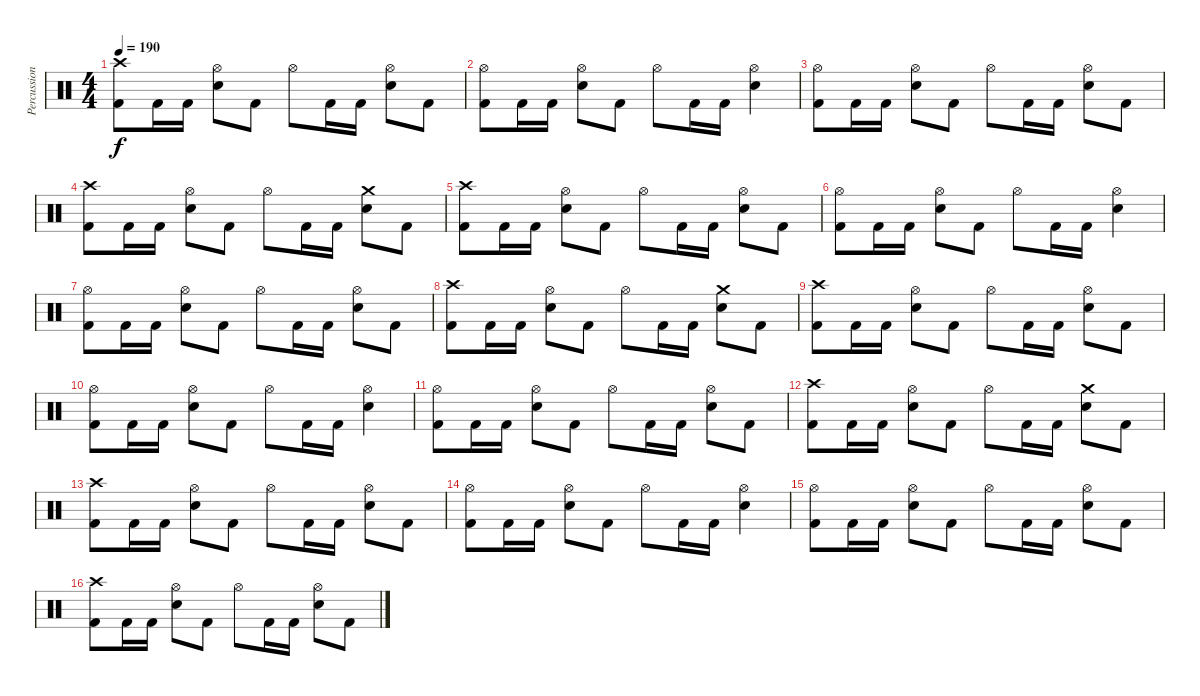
\track ("Percussion" "Percussion") {instrument percussion}
\staff {score}
\articulation defaults
\ts (4 4)
\tempo 190
\clef neutral
\ks c
("Crash high (hit)" "Kick (hit) 2").8{dy f} "Kick (hit) 2".16 "Kick (hit) 2".16 ("Hi-Hat (open)" "Snare (hit) 2").8 "Kick (hit) 2".8 "Hi-Hat (open)".8 "Kick (hit) 2".16 "Kick (hit) 2".16 ("Hi-Hat (open)" "Snare (hit) 2").8 "Kick (hit) 2".8 |
("Hi-Hat (open)" "Kick (hit) 2").8 "Kick (hit) 2".16 "Kick (hit) 2".16 ("Hi-Hat (open)" "Snare (hit) 2").8 "Kick (hit) 2".8 "Hi-Hat (open)".8 "Kick (hit) 2".16 "Kick (hit) 2".16 ("Hi-Hat (open)" "Snare (hit) 2").4 |
("Hi-Hat (open)" "Kick (hit) 2").8 "Kick (hit) 2".16 "Kick (hit) 2".16 ("Hi-Hat (open)" "Snare (hit) 2").8 "Kick (hit) 2".8 "Hi-Hat (open)".8 "Kick (hit) 2".16 "Kick (hit) 2".16 ("Hi-Hat (open)" "Snare (hit) 2").8 "Kick (hit) 2".8 |
("Crash high (hit)" "Kick (hit) 2").8 "Kick (hit) 2".16 "Kick (hit) 2".16 ("Hi-Hat (open)" "Snare (hit) 2").8 "Kick (hit) 2".8 "Hi-Hat (open)".8 "Kick (hit) 2".16 "Kick (hit) 2".16 ("Crash medium (hit)" "Snare (hit) 2").8 "Kick (hit) 2".8 |
("Crash high (hit)" "Kick (hit) 2").8 "Kick (hit) 2".16 "Kick (hit) 2".16 ("Hi-Hat (open)" "Snare (hit) 2").8 "Kick (hit) 2".8 "Hi-Hat (open)".8 "Kick (hit) 2".16 "Kick (hit) 2".16 ("Hi-Hat (open)" "Snare (hit) 2").8 "Kick (hit) 2".8 |
("Hi-Hat (open)" "Kick (hit) 2").8 "Kick (hit) 2".16 "Kick (hit) 2".16 ("Hi-Hat (open)" "Snare (hit) 2").8 "Kick (hit) 2".8 "Hi-Hat (open)".8 "Kick (hit) 2".16 "Kick (hit) 2".16 ("Hi-Hat (open)" "Snare (hit) 2").4 |
("Hi-Hat (open)" "Kick (hit) 2").8 "Kick (hit) 2".16 "Kick (hit) 2".16 ("Hi-Hat (open)" "Snare (hit) 2").8 "Kick (hit) 2".8 "Hi-Hat (open)".8 "Kick (hit) 2".16 "Kick (hit) 2".16 ("Hi-Hat (open)" "Snare (hit) 2").8 "Kick (hit) 2".8 |
("Crash high (hit)" "Kick (hit) 2").8 "Kick (hit) 2".16 "Kick (hit) 2".16 ("Hi-Hat (open)" "Snare (hit) 2").8 "Kick (hit) 2".8 "Hi-Hat (open)".8 "Kick (hit) 2".16 "Kick (hit) 2".16 ("Crash medium (hit)" "Snare (hit) 2").8 "Kick (hit) 2".8 |
("Crash high (hit)" "Kick (hit) 2").8 "Kick (hit) 2".16 "Kick (hit) 2".16 ("Hi-Hat (open)" "Snare (hit) 2").8 "Kick (hit) 2".8 "Hi-Hat (open)".8 "Kick (hit) 2".16 "Kick (hit) 2".16 ("Hi-Hat (open)" "Snare (hit) 2").8 "Kick (hit) 2".8 |
("Hi-Hat (open)" "Kick (hit) 2").8 "Kick (hit) 2".16 "Kick (hit) 2".16 ("Hi-Hat (open)" "Snare (hit) 2").8 "Kick (hit) 2".8 "Hi-Hat (open)".8 "Kick (hit) 2".16 "Kick (hit) 2".16 ("Hi-Hat (open)" "Snare (hit) 2").4 |
("Hi-Hat (open)" "Kick (hit) 2").8 "Kick (hit) 2".16 "Kick (hit) 2".16 ("Hi-Hat (open)" "Snare (hit) 2").8 "Kick (hit) 2".8 "Hi-Hat (open)".8 "Kick (hit) 2".16 "Kick (hit) 2".16 ("Hi-Hat (open)" "Snare (hit) 2").8 "Kick (hit) 2".8 |
("Crash high (hit)" "Kick (hit) 2").8 "Kick (hit) 2".16 "Kick (hit) 2".16 ("Hi-Hat (open)" "Snare (hit) 2").8 "Kick (hit) 2".8 "Hi-Hat (open)".8 "Kick (hit) 2".16 "Kick (hit) 2".16 ("Crash medium (hit)" "Snare (hit) 2").8 "Kick (hit) 2".8 |
("Crash high (hit)" "Kick (hit) 2").8 "Kick (hit) 2".16 "Kick (hit) 2".16 ("Hi-Hat (open)" "Snare (hit) 2").8 "Kick (hit) 2".8 "Hi-Hat (open)".8 "Kick (hit) 2".16 "Kick (hit) 2".16 ("Hi-Hat (open)" "Snare (hit) 2").8 "Kick (hit) 2".8 |
("Hi-Hat (open)" "Kick (hit) 2").8 "Kick (hit) 2".16 "Kick (hit) 2".16 ("Hi-Hat (open)" "Snare (hit) 2").8 "Kick (hit) 2".8 "Hi-Hat (open)".8 "Kick (hit) 2".16 "Kick (hit) 2".16 ("Hi-Hat (open)" "Snare (hit) 2").4 |
("Hi-Hat (open)" "Kick (hit) 2").8 "Kick (hit) 2".16 "Kick (hit) 2".16 ("Hi-Hat (open)" "Snare (hit) 2").8 "Kick (hit) 2".8 "Hi-Hat (open)".8 "Kick (hit) 2".16 "Kick (hit) 2".16 ("Hi-Hat (open)" "Snare (hit) 2").8 "Kick (hit) 2".8 |
("Crash high (hit)" "Kick (hit) 2").8 "Kick (hit) 2".16 "Kick (hit) 2".16 ("Hi-Hat (open)" "Snare (hit) 2").8 "Kick (hit) 2".8 "Hi-Hat (open)".8 "Kick (hit) 2".16 "Kick (hit) 2".16 ("Hi-Hat (open)" "Snare (hit) 2").8 "Kick (hit) 2".8
